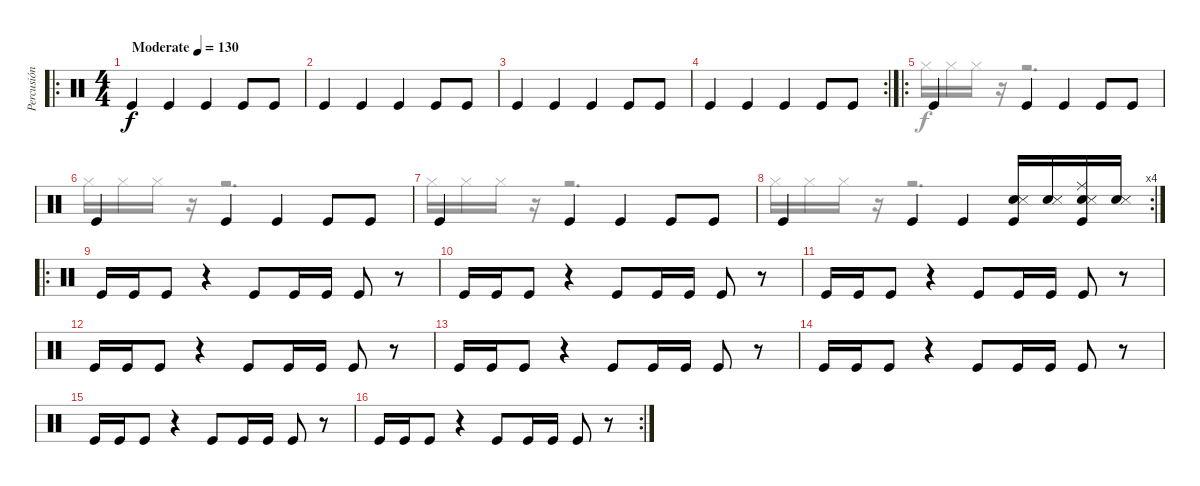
\track ("Percusión" "Percusión") {instrument percussion}
\staff {score}
\articulation defaults
\voice
\ro
\ts (4 4)
\tempo (130 "Moderate")
\clef neutral
\ks c "Kick (hit)".4{dy f} "Kick (hit)".4 "Kick (hit)".4 "Kick (hit)".8 "Kick (hit)".8
|
"Kick (hit)".4 "Kick (hit)".4 "Kick (hit)".4 "Kick (hit)".8 "Kick (hit)".8 |
"Kick (hit)".4 "Kick (hit)".4 "Kick (hit)".4 "Kick (hit)".8 "Kick (hit)".8 |
\rc 2 "Kick (hit)".4 "Kick (hit)".4 "Kick (hit)".4 "Kick (hit)".8 "Kick (hit)".8
|
\ro "Kick (hit)".4 "Kick (hit)".4 "Kick (hit)".4 "Kick (hit)".8 "Kick (hit)".8
|
"Kick (hit)".4 "Kick (hit)".4 "Kick (hit)".4 "Kick (hit)".8 "Kick (hit)".8 |
"Kick (hit)".4 "Kick (hit)".4 "Kick (hit)".4 "Kick (hit)".8 "Kick (hit)".8 |
\rc 4 "Kick (hit)".4 "Kick (hit)".4 "Kick (hit)".4
("Electric Snare (hit)" "Snare (side stick) 3" "Kick (hit)").16 ("Electric Snare (hit)" "Snare (side stick) 3").16 ("Electric Snare (hit)" "Ride (middle)" "Snare (side stick) 3" "Kick (hit)").16 ("Electric Snare (hit)" "Snare (side stick) 3").16 |
\ro "Kick (hit)".16 "Kick (hit)".16 "Kick (hit)".8
r.4 "Kick (hit)".8 "Kick (hit)".16 "Kick (hit)".16 "Kick (hit)".8 r.8 |
"Kick (hit)".16 "Kick (hit)".16 "Kick (hit)".8 r.4 "Kick (hit)".8 "Kick (hit)".16 "Kick (hit)".16 "Kick (hit)".8 r.8 |
"Kick (hit)".16 "Kick (hit)".16 "Kick (hit)".8 r.4 "Kick (hit)".8 "Kick (hit)".16 "Kick (hit)".16 "Kick (hit)".8 r.8 |
"Kick (hit)".16 "Kick (hit)".16 "Kick (hit)".8 r.4 "Kick (hit)".8 "Kick (hit)".16 "Kick (hit)".16 "Kick (hit)".8 r.8 |
"Kick (hit)".16 "Kick (hit)".16 "Kick (hit)".8 r.4 "Kick (hit)".8 "Kick (hit)".16 "Kick (hit)".16 "Kick (hit)".8 r.8 |
"Kick (hit)".16 "Kick (hit)".16 "Kick (hit)".8 r.4 "Kick (hit)".8 "Kick (hit)".16 "Kick (hit)".16 "Kick (hit)".8 r.8 |
"Kick (hit)".16 "Kick (hit)".16 "Kick (hit)".8 r.4 "Kick (hit)".8 "Kick (hit)".16 "Kick (hit)".16 "Kick (hit)".8 r.8 |
\rc 2 "Kick (hit)".16 "Kick (hit)".16 "Kick (hit)".8
r.4 "Kick (hit)".8 "Kick (hit)".16 "Kick (hit)".16 "Kick (hit)".8 r.8
\voice
\clef neutral
\ottava regular
\simile none
\ks c
|
|
|
|
"Hi-Hat (closed)".16 "Hi-Hat (closed)".16 "Hi-Hat (closed)".16 r.16 r.2{d} |
"Hi-Hat (closed)".16 "Hi-Hat (closed)".16 "Hi-Hat (closed)".16 r.16 r.2{d} |
"Hi-Hat (closed)".16 "Hi-Hat (closed)".16 "Hi-Hat (closed)".16 r.16 r.2{d} |
"Hi-Hat (closed)".16 "Hi-Hat (closed)".16 "Hi-Hat (closed)".16 r.16 r.2{d} |
|
|
|
|
|
|
|
